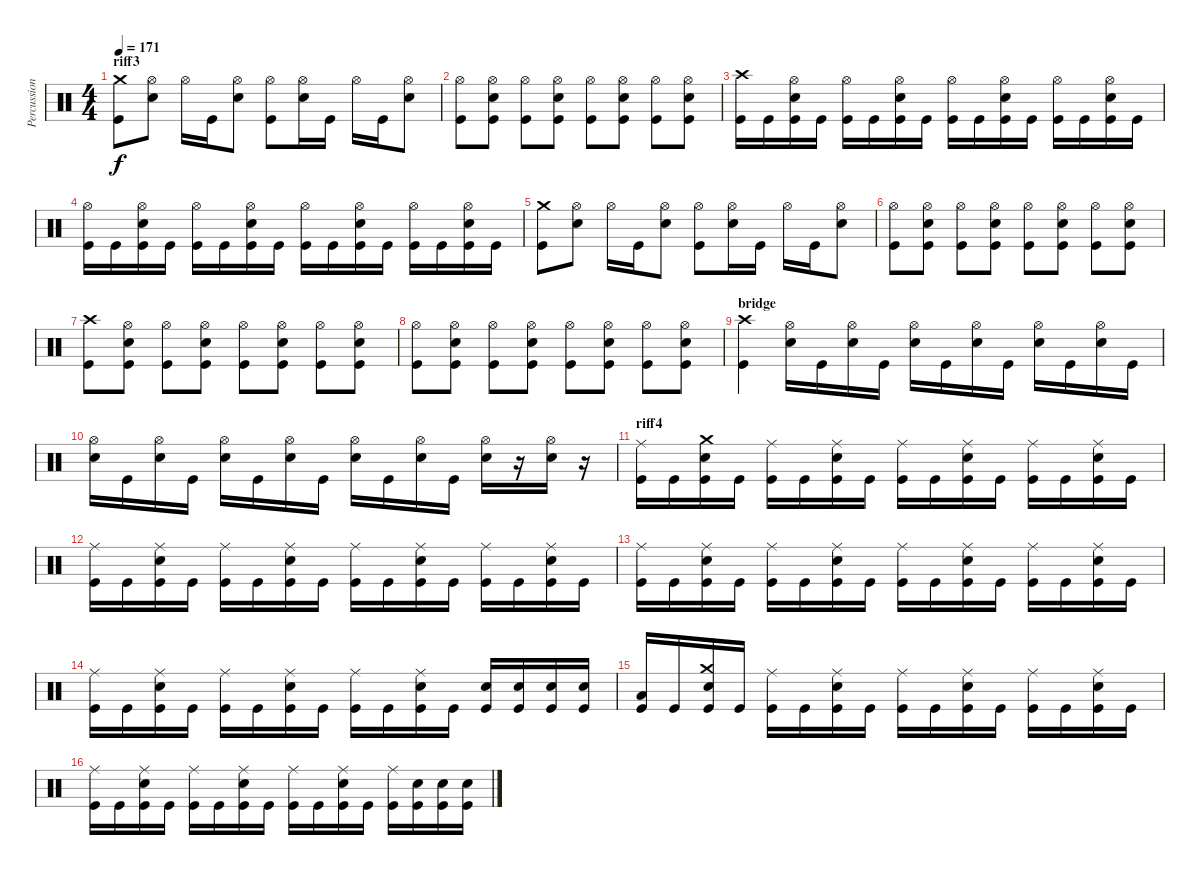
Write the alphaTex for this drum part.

\track ("Percussion" "Percussion") {instrument percussion}
\staff {score}
\articulation defaults
\ts (4 4)
\section ("" "riff3")
\tempo 171
\clef neutral
\ks c
("Kick (hit)" "Crash medium (hit)").8{dy f} ("Hi-Hat (open)" "Snare (hit) 2").8 "Hi-Hat (open)".16 "Kick (hit)".16 ("Hi-Hat (open)" "Snare (hit) 2").8 ("Kick (hit)" "Hi-Hat (open)").8 ("Hi-Hat (open)" "Snare (hit) 2").16 "Kick (hit)".16 "Hi-Hat (open)".16 "Kick (hit)".16 ("Hi-Hat (open)" "Snare (hit) 2").8 |
("Kick (hit)" "Hi-Hat (open)").8 ("Kick (hit)" "Hi-Hat (open)" "Snare (hit) 2").8 ("Kick (hit)" "Hi-Hat (open)").8 ("Kick (hit)" "Hi-Hat (open)" "Snare (hit) 2").8 ("Kick (hit)" "Hi-Hat (open)").8 ("Kick (hit)" "Hi-Hat (open)" "Snare (hit) 2").8 ("Kick (hit)" "Hi-Hat (open)").8 ("Kick (hit)" "Hi-Hat (open)" "Snare (hit) 2").8 |
("Kick (hit)" "Crash high (hit)").16 "Kick (hit)".16 ("Kick (hit)" "Hi-Hat (open)" "Snare (hit) 2").16 "Kick (hit)".16 ("Kick (hit)" "Hi-Hat (open)").16 "Kick (hit)".16 ("Kick (hit)" "Hi-Hat (open)" "Snare (hit) 2").16 "Kick (hit)".16 ("Kick (hit)" "Hi-Hat (open)").16 "Kick (hit)".16 ("Kick (hit)" "Hi-Hat (open)" "Snare (hit) 2").16 "Kick (hit)".16 ("Kick (hit)" "Hi-Hat (open)").16 "Kick (hit)".16 ("Kick (hit)" "Hi-Hat (open)" "Snare (hit) 2").16 "Kick (hit)".16 |
("Kick (hit)" "Hi-Hat (open)").16 "Kick (hit)".16 ("Kick (hit)" "Hi-Hat (open)" "Snare (hit) 2").16 "Kick (hit)".16 ("Kick (hit)" "Hi-Hat (open)").16 "Kick (hit)".16 ("Kick (hit)" "Hi-Hat (open)" "Snare (hit) 2").16 "Kick (hit)".16 ("Kick (hit)" "Hi-Hat (open)").16 "Kick (hit)".16 ("Kick (hit)" "Hi-Hat (open)" "Snare (hit) 2").16 "Kick (hit)".16 ("Kick (hit)" "Hi-Hat (open)").16 "Kick (hit)".16 ("Kick (hit)" "Hi-Hat (open)" "Snare (hit) 2").16 "Kick (hit)".16 |
("Kick (hit)" "Crash medium (hit)").8 ("Hi-Hat (open)" "Snare (hit) 2").8 "Hi-Hat (open)".16 "Kick (hit)".16 ("Hi-Hat (open)" "Snare (hit) 2").8 ("Kick (hit)" "Hi-Hat (open)").8 ("Hi-Hat (open)" "Snare (hit) 2").16 "Kick (hit)".16 "Hi-Hat (open)".16 "Kick (hit)".16 ("Hi-Hat (open)" "Snare (hit) 2").8 |
("Kick (hit)" "Hi-Hat (open)").8 ("Kick (hit)" "Hi-Hat (open)" "Snare (hit) 2").8 ("Kick (hit)" "Hi-Hat (open)").8 ("Kick (hit)" "Hi-Hat (open)" "Snare (hit) 2").8 ("Kick (hit)" "Hi-Hat (open)").8 ("Kick (hit)" "Hi-Hat (open)" "Snare (hit) 2").8 ("Kick (hit)" "Hi-Hat (open)").8 ("Kick (hit)" "Hi-Hat (open)" "Snare (hit) 2").8 |
("Kick (hit)" "Crash high (hit)").8 ("Kick (hit)" "Hi-Hat (open)" "Snare (hit) 2").8 ("Kick (hit)" "Hi-Hat (open)").8 ("Kick (hit)" "Hi-Hat (open)" "Snare (hit) 2").8 ("Kick (hit)" "Hi-Hat (open)").8 ("Kick (hit)" "Hi-Hat (open)" "Snare (hit) 2").8 ("Kick (hit)" "Hi-Hat (open)").8 ("Kick (hit)" "Hi-Hat (open)" "Snare (hit) 2").8 |
("Kick (hit)" "Hi-Hat (open)").8 ("Kick (hit)" "Hi-Hat (open)" "Snare (hit) 2").8 ("Kick (hit)" "Hi-Hat (open)").8 ("Kick (hit)" "Hi-Hat (open)" "Snare (hit) 2").8 ("Kick (hit)" "Hi-Hat (open)").8 ("Kick (hit)" "Hi-Hat (open)" "Snare (hit) 2").8 ("Kick (hit)" "Hi-Hat (open)").8 ("Kick (hit)" "Hi-Hat (open)" "Snare (hit) 2").8 |
\section ("" "bridge")
("Kick (hit)" "Crash high (hit)").4 ("Hi-Hat (open)" "Snare (hit) 2").16 "Kick (hit)".16 ("Hi-Hat (open)" "Snare (hit) 2").16 "Kick (hit)".16 ("Hi-Hat (open)" "Snare (hit) 2").16 "Kick (hit)".16 ("Hi-Hat (open)" "Snare (hit) 2").16 "Kick (hit)".16 ("Hi-Hat (open)" "Snare (hit) 2").16 "Kick (hit)".16 ("Hi-Hat (open)" "Snare (hit) 2").16 "Kick (hit)".16 |
("Hi-Hat (open)" "Snare (hit) 2").16 "Kick (hit)".16 ("Hi-Hat (open)" "Snare (hit) 2").16 "Kick (hit)".16 ("Hi-Hat (open)" "Snare (hit) 2").16 "Kick (hit)".16 ("Hi-Hat (open)" "Snare (hit) 2").16 "Kick (hit)".16 ("Hi-Hat (open)" "Snare (hit) 2").16 "Kick (hit)".16 ("Hi-Hat (open)" "Snare (hit) 2").16 "Kick (hit)".16 ("Hi-Hat (open)" "Snare (hit) 2").16 r.16 ("Hi-Hat (open)" "Snare (hit) 2").16 r.16 |
\section ("" "riff4")
("Kick (hit)" "Ride (middle)").16 "Kick (hit)".16 ("Kick (hit)" "Crash medium (hit)" "Snare (hit) 2").16 "Kick (hit)".16 ("Kick (hit)" "Ride (middle)").16 "Kick (hit)".16 ("Kick (hit)" "Ride (middle)" "Snare (hit) 2").16 "Kick (hit)".16 ("Kick (hit)" "Ride (middle)").16 "Kick (hit)".16 ("Kick (hit)" "Ride (middle)" "Snare (hit) 2").16 "Kick (hit)".16 ("Kick (hit)" "Ride (middle)").16 "Kick (hit)".16 ("Kick (hit)" "Ride (middle)" "Snare (hit) 2").16 "Kick (hit)".16 |
("Kick (hit)" "Ride (middle)").16 "Kick (hit)".16 ("Kick (hit)" "Ride (middle)" "Snare (hit) 2").16 "Kick (hit)".16 ("Kick (hit)" "Ride (middle)").16 "Kick (hit)".16 ("Kick (hit)" "Ride (middle)" "Snare (hit) 2").16 "Kick (hit)".16 ("Kick (hit)" "Ride (middle)").16 "Kick (hit)".16 ("Kick (hit)" "Ride (middle)" "Snare (hit) 2").16 "Kick (hit)".16 ("Kick (hit)" "Ride (middle)").16 "Kick (hit)".16 ("Kick (hit)" "Ride (middle)" "Snare (hit) 2").16 "Kick (hit)".16 |
("Kick (hit)" "Ride (middle)").16 "Kick (hit)".16 ("Kick (hit)" "Ride (middle)" "Snare (hit) 2").16 "Kick (hit)".16 ("Kick (hit)" "Ride (middle)").16 "Kick (hit)".16 ("Kick (hit)" "Ride (middle)" "Snare (hit) 2").16 "Kick (hit)".16 ("Kick (hit)" "Ride (middle)").16 "Kick (hit)".16 ("Kick (hit)" "Ride (middle)" "Snare (hit) 2").16 "Kick (hit)".16 ("Kick (hit)" "Ride (middle)").16 "Kick (hit)".16 ("Kick (hit)" "Ride (middle)" "Snare (hit) 2").16 "Kick (hit)".16 |
("Kick (hit)" "Ride (middle)").16 "Kick (hit)".16 ("Kick (hit)" "Ride (middle)" "Snare (hit) 2").16 "Kick (hit)".16 ("Kick (hit)" "Ride (middle)").16 "Kick (hit)".16 ("Kick (hit)" "Ride (middle)" "Snare (hit) 2").16 "Kick (hit)".16 ("Kick (hit)" "Ride (middle)").16 "Kick (hit)".16 ("Kick (hit)" "Ride (middle)" "Snare (hit) 2").16 "Kick (hit)".16 ("Kick (hit)" "Snare (hit) 2").16 ("Kick (hit)" "Snare (hit) 2").16 ("Kick (hit)" "Snare (hit) 2").16 ("Kick (hit)" "Snare (hit) 2").16 |
("Kick (hit)" "Low Tom (hit)").16 "Kick (hit)".16 ("Kick (hit)" "Crash medium (hit)" "Snare (hit) 2").16 "Kick (hit)".16 ("Kick (hit)" "Ride (middle)").16 "Kick (hit)".16 ("Kick (hit)" "Ride (middle)" "Snare (hit) 2").16 "Kick (hit)".16 ("Kick (hit)" "Ride (middle)").16 "Kick (hit)".16 ("Kick (hit)" "Ride (middle)" "Snare (hit) 2").16 "Kick (hit)".16 ("Kick (hit)" "Ride (middle)").16 "Kick (hit)".16 ("Kick (hit)" "Ride (middle)" "Snare (hit) 2").16 "Kick (hit)".16 |
("Kick (hit)" "Ride (middle)").16 "Kick (hit)".16 ("Kick (hit)" "Ride (middle)" "Snare (hit) 2").16 "Kick (hit)".16 ("Kick (hit)" "Ride (middle)").16 "Kick (hit)".16 ("Kick (hit)" "Ride (middle)" "Snare (hit) 2").16 "Kick (hit)".16 ("Kick (hit)" "Ride (middle)").16 "Kick (hit)".16 ("Kick (hit)" "Ride (middle)" "Snare (hit) 2").16 "Kick (hit)".16 ("Kick (hit)" "Ride (middle)").16 ("Kick (hit)" "Snare (hit) 2").16 ("Kick (hit)" "Snare (hit) 2").16 ("Kick (hit)" "Snare (hit) 2").16
